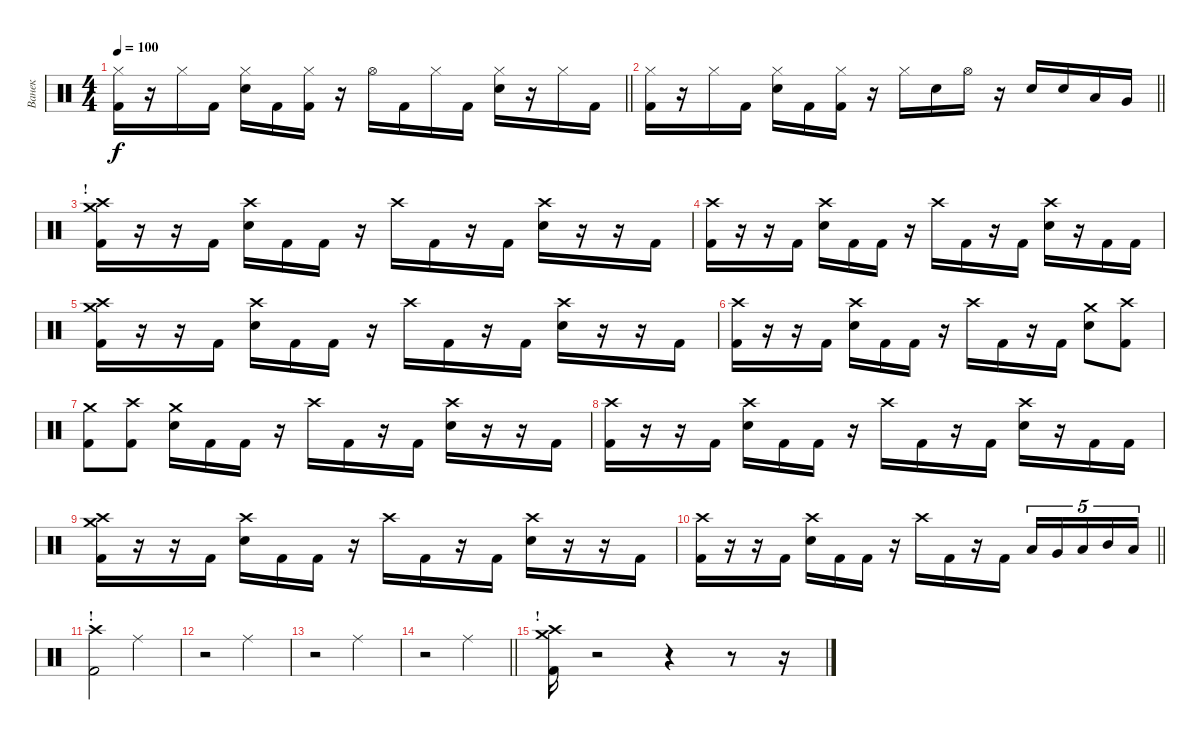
\track ("Ванек" "Ванек") {instrument percussion}
\staff {score}
\articulation defaults
\ts (4 4)
\tempo 100
\clef neutral
\barLineRight lightlight
\ks c
("Hi-Hat (closed)" "Kick (hit) 2").16{dy f} r.16 "Hi-Hat (closed)".16 "Kick (hit) 2".16 ("Hi-Hat (closed)" "Snare (hit) 2").16 "Kick (hit) 2".16 ("Hi-Hat (closed)" "Kick (hit) 2").16 r.16 "Hi-Hat (open)".16 "Kick (hit) 2".16 "Hi-Hat (closed)".16 "Kick (hit) 2".16 ("Hi-Hat (closed)" "Snare (hit) 2").16 r.16 "Hi-Hat (closed)".16 "Kick (hit) 2".16 |
\section ("" "")
\barLineRight lightlight
("Hi-Hat (closed)" "Kick (hit) 2").16 r.16 "Hi-Hat (closed)".16 "Kick (hit) 2".16 ("Hi-Hat (closed)" "Snare (hit) 2").16 "Kick (hit) 2".16 ("Hi-Hat (closed)" "Kick (hit) 2").16 r.16 "Hi-Hat (closed)".16 "Snare (hit) 2".16 "Hi-Hat (open)".16 r.16 "Snare (hit) 2".16 "Snare (hit) 2".16 "Low Tom (hit)".16 "Very Low Tom (hit)".16 |
\section ("" "!")
("Crash high (hit)" "Crash medium (hit)" "Kick (hit) 2").16 r.16 r.16 "Kick (hit) 2".16 ("Crash high (hit)" "Snare (hit) 2").16 "Kick (hit) 2".16 "Kick (hit) 2".16 r.16 "Crash high (hit)".16 "Kick (hit) 2".16 r.16 "Kick (hit) 2".16 ("Crash high (hit)" "Snare (hit) 2").16 r.16 r.16 "Kick (hit) 2".16 |
("Crash high (hit)" "Kick (hit) 2").16 r.16 r.16 "Kick (hit) 2".16 ("Crash high (hit)" "Snare (hit) 2").16 "Kick (hit) 2".16 "Kick (hit) 2".16 r.16 "Crash high (hit)".16 "Kick (hit) 2".16 r.16 "Kick (hit) 2".16 ("Crash high (hit)" "Snare (hit) 2").16 r.16 "Kick (hit) 2".16 "Kick (hit) 2".16 |
("Crash high (hit)" "Crash medium (hit)" "Kick (hit) 2").16 r.16 r.16 "Kick (hit) 2".16 ("Crash high (hit)" "Snare (hit) 2").16 "Kick (hit) 2".16 "Kick (hit) 2".16 r.16 "Crash high (hit)".16 "Kick (hit) 2".16 r.16 "Kick (hit) 2".16 ("Crash high (hit)" "Snare (hit) 2").16 r.16 r.16 "Kick (hit) 2".16 |
("Crash high (hit)" "Kick (hit) 2").16 r.16 r.16 "Kick (hit) 2".16 ("Crash high (hit)" "Snare (hit) 2").16 "Kick (hit) 2".16 "Kick (hit) 2".16 r.16 "Crash high (hit)".16 "Kick (hit) 2".16 r.16 "Kick (hit) 2".16 ("Crash medium (hit)" "Snare (hit) 2").8 ("Crash high (hit)" "Kick (hit) 2").8 |
("Crash medium (hit)" "Kick (hit) 2").8 ("Crash high (hit)" "Kick (hit) 2").8 ("Crash medium (hit)" "Snare (hit) 2").16 "Kick (hit) 2".16 "Kick (hit) 2".16 r.16 "Crash high (hit)".16 "Kick (hit) 2".16 r.16 "Kick (hit) 2".16 ("Crash high (hit)" "Snare (hit) 2").16 r.16 r.16 "Kick (hit) 2".16 |
("Crash high (hit)" "Kick (hit) 2").16 r.16 r.16 "Kick (hit) 2".16 ("Crash high (hit)" "Snare (hit) 2").16 "Kick (hit) 2".16 "Kick (hit) 2".16 r.16 "Crash high (hit)".16 "Kick (hit) 2".16 r.16 "Kick (hit) 2".16 ("Crash high (hit)" "Snare (hit) 2").16 r.16 "Kick (hit) 2".16 "Kick (hit) 2".16 |
("Crash high (hit)" "Crash medium (hit)" "Kick (hit) 2").16 r.16 r.16 "Kick (hit) 2".16 ("Crash high (hit)" "Snare (hit) 2").16 "Kick (hit) 2".16 "Kick (hit) 2".16 r.16 "Crash high (hit)".16 "Kick (hit) 2".16 r.16 "Kick (hit) 2".16 ("Crash high (hit)" "Snare (hit) 2").16 r.16 r.16 "Kick (hit) 2".16 |
\barLineRight lightlight
("Crash high (hit)" "Kick (hit) 2").16 r.16 r.16 "Kick (hit) 2".16 ("Crash high (hit)" "Snare (hit) 2").16 "Kick (hit) 2".16 "Kick (hit) 2".16 r.16 "Crash high (hit)".16 "Kick (hit) 2".16 r.16 "Kick (hit) 2".16 "Low Floor Tom (hit)".16{tu (5 4)} "Very Low Tom (hit)".16{tu (5 4)} "Low Tom (hit)".16{tu (5 4)} "Mid Tom (hit)".16{tu (5 4)} "Low Tom (hit)".16{tu (5 4)} |
\section ("" "!")
("Crash high (hit)" "Kick (hit) 2").2 "Ride (middle)".2 |
r.2 "Ride (middle)".2 |
r.2 "Ride (middle)".2 |
\barLineRight lightlight
r.2 "Ride (middle)".2 |
\section ("" "!")
("Crash high (hit)" "Crash medium (hit)" "Kick (hit) 2").16 r.2 r.4 r.8 r.16
